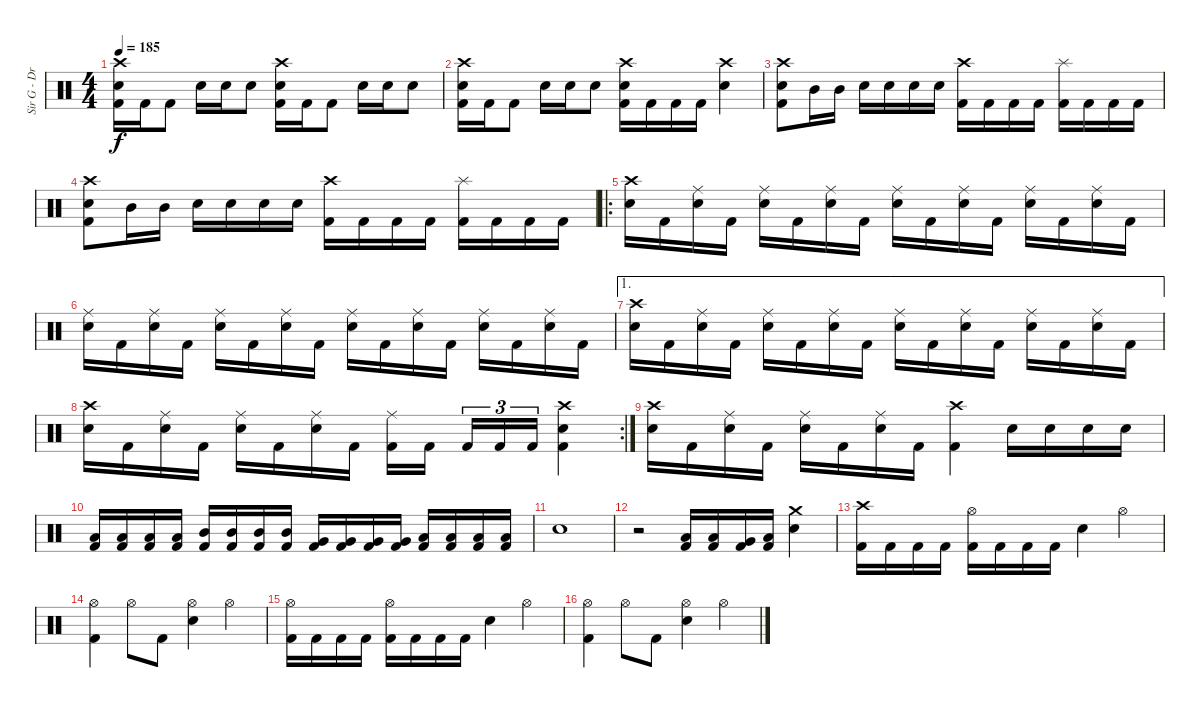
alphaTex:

\track ("Sir G - Drums" "Sir G - Dr") {instrument percussion}
\staff {score}
\articulation defaults
\ts (4 4)
\tempo 185
\clef neutral
\ks c
("Kick (hit) 2" "Electric Snare (hit)" "Crash high (hit)").16{dy f} "Kick (hit) 2".16 "Kick (hit) 2".8 "Electric Snare (hit)".16 "Electric Snare (hit)".16 "Electric Snare (hit)".8 ("Kick (hit) 2" "Electric Snare (hit)" "Crash high (hit)").16 "Kick (hit) 2".16 "Kick (hit) 2".8 "Electric Snare (hit)".16 "Electric Snare (hit)".16 "Electric Snare (hit)".8 |
("Kick (hit) 2" "Electric Snare (hit)" "Crash high (hit)").16 "Kick (hit) 2".16 "Kick (hit) 2".8 "Electric Snare (hit)".16 "Electric Snare (hit)".16 "Electric Snare (hit)".8 ("Kick (hit) 2" "Electric Snare (hit)" "Crash high (hit)").16 "Kick (hit) 2".16 "Kick (hit) 2".16 "Kick (hit) 2".16 ("Electric Snare (hit)" "Crash high (hit)").4 |
("Kick (hit) 2" "Electric Snare (hit)" "Crash high (hit)").8 "Mid Tom (hit)".16 "Mid Tom (hit)".16 "Electric Snare (hit)".16 "Electric Snare (hit)".16 "Electric Snare (hit)".16 "Electric Snare (hit)".16 ("Kick (hit) 2" "Crash high (hit)").16 "Kick (hit) 2".16 "Kick (hit) 2".16 "Kick (hit) 2".16 ("Kick (hit) 2" "Splash (hit)").16 "Kick (hit) 2".16 "Kick (hit) 2".16 "Kick (hit) 2".16 |
("Kick (hit) 2" "Electric Snare (hit)" "Crash high (hit)").8 "Mid Tom (hit)".16 "Mid Tom (hit)".16 "Electric Snare (hit)".16 "Electric Snare (hit)".16 "Electric Snare (hit)".16 "Electric Snare (hit)".16 ("Kick (hit) 2" "Crash high (hit)").16 "Kick (hit) 2".16 "Kick (hit) 2".16 "Kick (hit) 2".16 ("Kick (hit) 2" "Splash (hit)").16 "Kick (hit) 2".16 "Kick (hit) 2".16 "Kick (hit) 2".16 |
\ro
("Electric Snare (hit)" "Crash high (hit)").16 "Kick (hit) 2".16 ("Electric Snare (hit)" "Ride (middle)").16 "Kick (hit) 2".16 ("Electric Snare (hit)" "Ride (middle)").16 "Kick (hit) 2".16 ("Electric Snare (hit)" "Ride (middle)").16 "Kick (hit) 2".16 ("Electric Snare (hit)" "Ride (middle)").16 "Kick (hit) 2".16 ("Electric Snare (hit)" "Ride (middle)").16 "Kick (hit) 2".16 ("Electric Snare (hit)" "Ride (middle)").16 "Kick (hit) 2".16 ("Electric Snare (hit)" "Ride (middle)").16 "Kick (hit) 2".16 |
("Electric Snare (hit)" "Ride (middle)").16 "Kick (hit) 2".16 ("Electric Snare (hit)" "Ride (middle)").16 "Kick (hit) 2".16 ("Electric Snare (hit)" "Ride (middle)").16 "Kick (hit) 2".16 ("Electric Snare (hit)" "Ride (middle)").16 "Kick (hit) 2".16 ("Electric Snare (hit)" "Ride (middle)").16 "Kick (hit) 2".16 ("Electric Snare (hit)" "Ride (middle)").16 "Kick (hit) 2".16 ("Electric Snare (hit)" "Ride (middle)").16 "Kick (hit) 2".16 ("Electric Snare (hit)" "Ride (middle)").16 "Kick (hit) 2".16 |
\ae 1
("Electric Snare (hit)" "Crash high (hit)").16 "Kick (hit) 2".16 ("Electric Snare (hit)" "Ride (middle)").16 "Kick (hit) 2".16 ("Electric Snare (hit)" "Ride (middle)").16 "Kick (hit) 2".16 ("Electric Snare (hit)" "Ride (middle)").16 "Kick (hit) 2".16 ("Electric Snare (hit)" "Ride (middle)").16 "Kick (hit) 2".16 ("Electric Snare (hit)" "Ride (middle)").16 "Kick (hit) 2".16 ("Electric Snare (hit)" "Ride (middle)").16 "Kick (hit) 2".16 ("Electric Snare (hit)" "Ride (middle)").16 "Kick (hit) 2".16 |
\rc 2
("Electric Snare (hit)" "Crash high (hit)").16 "Kick (hit) 2".16 ("Electric Snare (hit)" "Ride (middle)").16 "Kick (hit) 2".16 ("Electric Snare (hit)" "Ride (middle)").16 "Kick (hit) 2".16 ("Electric Snare (hit)" "Ride (middle)").16 "Kick (hit) 2".16 ("Kick (hit) 2" "Ride (middle)").16 "Kick (hit) 2".16 "Kick (hit) 2".16{tu (3 2)} "Kick (hit) 2".16{tu (3 2)} "Kick (hit) 2".16{tu (3 2)} ("Kick (hit) 2" "Electric Snare (hit)" "Crash high (hit)").4 |
("Electric Snare (hit)" "Crash high (hit)").16 "Kick (hit) 2".16 ("Electric Snare (hit)" "Ride (middle)").16 "Kick (hit) 2".16 ("Electric Snare (hit)" "Ride (middle)").16 "Kick (hit) 2".16 ("Electric Snare (hit)" "Ride (middle)").16 "Kick (hit) 2".16 ("Kick (hit) 2" "Crash high (hit)").4 "Electric Snare (hit)".16 "Electric Snare (hit)".16 "Electric Snare (hit)".16 "Electric Snare (hit)".16 |
("Kick (hit) 2" "Low Tom (hit)").16 ("Kick (hit) 2" "Low Tom (hit)").16 ("Kick (hit) 2" "Low Tom (hit)").16 ("Kick (hit) 2" "Low Tom (hit)").16 ("Kick (hit) 2" "Mid Tom (hit)").16 ("Kick (hit) 2" "Mid Tom (hit)").16 ("Kick (hit) 2" "Mid Tom (hit)").16 ("Kick (hit) 2" "Mid Tom (hit)").16 ("Kick (hit) 2" "Very Low Tom (hit)").16 ("Kick (hit) 2" "Very Low Tom (hit)").16 ("Kick (hit) 2" "Very Low Tom (hit)").16 ("Kick (hit) 2" "Very Low Tom (hit)").16 ("Kick (hit) 2" "Low Tom (hit)").16 ("Kick (hit) 2" "Low Tom (hit)").16 ("Kick (hit) 2" "Low Tom (hit)").16 ("Kick (hit) 2" "Low Tom (hit)").16 |
"Electric Snare (hit)".1 |
r.2 ("Kick (hit) 2" "Low Tom (hit)").16 ("Kick (hit) 2" "Low Tom (hit)").16 ("Kick (hit) 2" "Very Low Tom (hit)").16 ("Kick (hit) 2" "Low Floor Tom (hit)").16 ("Electric Snare (hit)" "Crash medium (hit)").4 |
("Kick (hit) 2" "Crash high (hit)").16 "Kick (hit) 2".16 "Kick (hit) 2".16 "Kick (hit) 2".16 ("Kick (hit) 2" "Hi-Hat (open)").16 "Kick (hit) 2".16 "Kick (hit) 2".16 "Kick (hit) 2".16 "Electric Snare (hit)".4 "Hi-Hat (open)".4 |
("Kick (hit) 2" "Hi-Hat (open)").4 "Hi-Hat (open)".8 "Kick (hit) 2".8 ("Electric Snare (hit)" "Hi-Hat (open)").4 "Hi-Hat (open)".4 |
("Kick (hit) 2" "Hi-Hat (open)").16 "Kick (hit) 2".16 "Kick (hit) 2".16 "Kick (hit) 2".16 ("Kick (hit) 2" "Hi-Hat (open)").16 "Kick (hit) 2".16 "Kick (hit) 2".16 "Kick (hit) 2".16 "Electric Snare (hit)".4 "Hi-Hat (open)".4 |
("Kick (hit) 2" "Hi-Hat (open)").4 "Hi-Hat (open)".8 "Kick (hit) 2".8 ("Electric Snare (hit)" "Hi-Hat (open)").4 "Hi-Hat (open)".4
